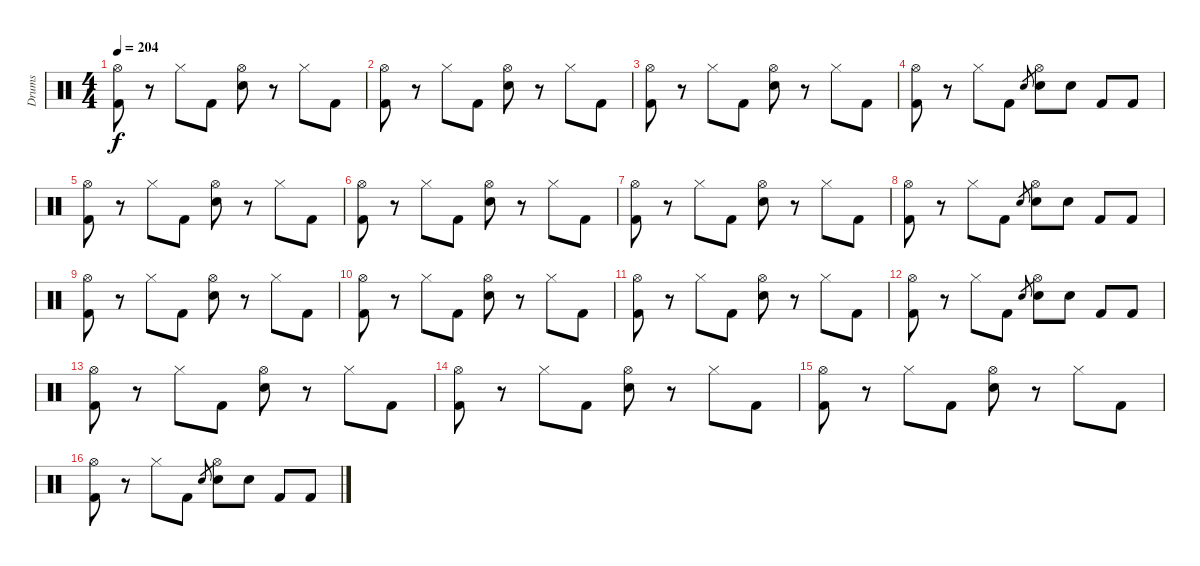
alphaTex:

\track ("Drums" "Drums") {instrument percussion}
\staff {score}
\articulation defaults
\ts (4 4)
\section ("" "")
\tempo 204
\clef neutral
\ks c
("Hi-Hat (open)" "Kick (hit) 2").8{dy f} r.8 "Hi-Hat (closed)".8 "Kick (hit) 2".8 ("Hi-Hat (open)" "Electric Snare (hit)").8 r.8 "Hi-Hat (closed)".8 "Kick (hit) 2".8 |
("Hi-Hat (open)" "Kick (hit) 2").8 r.8 "Hi-Hat (closed)".8 "Kick (hit) 2".8 ("Hi-Hat (open)" "Electric Snare (hit)").8 r.8 "Hi-Hat (closed)".8 "Kick (hit) 2".8 |
("Hi-Hat (open)" "Kick (hit) 2").8 r.8 "Hi-Hat (closed)".8 "Kick (hit) 2".8 ("Hi-Hat (open)" "Electric Snare (hit)").8 r.8 "Hi-Hat (closed)".8 "Kick (hit) 2".8 |
("Hi-Hat (open)" "Kick (hit) 2").8 r.8 "Hi-Hat (closed)".8 "Kick (hit) 2".8 "Electric Snare (hit)".8{gr} ("Hi-Hat (open)" "Electric Snare (hit)").8 "Electric Snare (hit)".8 "Kick (hit) 2".8 "Kick (hit) 2".8 |
("Hi-Hat (open)" "Kick (hit) 2").8 r.8 "Hi-Hat (closed)".8 "Kick (hit) 2".8 ("Hi-Hat (open)" "Electric Snare (hit)").8 r.8 "Hi-Hat (closed)".8 "Kick (hit) 2".8 |
("Hi-Hat (open)" "Kick (hit) 2").8 r.8 "Hi-Hat (closed)".8 "Kick (hit) 2".8 ("Hi-Hat (open)" "Electric Snare (hit)").8 r.8 "Hi-Hat (closed)".8 "Kick (hit) 2".8 |
("Hi-Hat (open)" "Kick (hit) 2").8 r.8 "Hi-Hat (closed)".8 "Kick (hit) 2".8 ("Hi-Hat (open)" "Electric Snare (hit)").8 r.8 "Hi-Hat (closed)".8 "Kick (hit) 2".8 |
("Hi-Hat (open)" "Kick (hit) 2").8 r.8 "Hi-Hat (closed)".8 "Kick (hit) 2".8 "Electric Snare (hit)".8{gr} ("Hi-Hat (open)" "Electric Snare (hit)").8 "Electric Snare (hit)".8 "Kick (hit) 2".8 "Kick (hit) 2".8 |
\section ("" "")
("Hi-Hat (open)" "Kick (hit) 2").8 r.8 "Hi-Hat (closed)".8 "Kick (hit) 2".8 ("Hi-Hat (open)" "Electric Snare (hit)").8 r.8 "Hi-Hat (closed)".8 "Kick (hit) 2".8 |
("Hi-Hat (open)" "Kick (hit) 2").8 r.8 "Hi-Hat (closed)".8 "Kick (hit) 2".8 ("Hi-Hat (open)" "Electric Snare (hit)").8 r.8 "Hi-Hat (closed)".8 "Kick (hit) 2".8 |
("Hi-Hat (open)" "Kick (hit) 2").8 r.8 "Hi-Hat (closed)".8 "Kick (hit) 2".8 ("Hi-Hat (open)" "Electric Snare (hit)").8 r.8 "Hi-Hat (closed)".8 "Kick (hit) 2".8 |
("Hi-Hat (open)" "Kick (hit) 2").8 r.8 "Hi-Hat (closed)".8 "Kick (hit) 2".8 "Electric Snare (hit)".8{gr} ("Hi-Hat (open)" "Electric Snare (hit)").8 "Electric Snare (hit)".8 "Kick (hit) 2".8 "Kick (hit) 2".8 |
("Hi-Hat (open)" "Kick (hit) 2").8 r.8 "Hi-Hat (closed)".8 "Kick (hit) 2".8 ("Hi-Hat (open)" "Electric Snare (hit)").8 r.8 "Hi-Hat (closed)".8 "Kick (hit) 2".8 |
("Hi-Hat (open)" "Kick (hit) 2").8 r.8 "Hi-Hat (closed)".8 "Kick (hit) 2".8 ("Hi-Hat (open)" "Electric Snare (hit)").8 r.8 "Hi-Hat (closed)".8 "Kick (hit) 2".8 |
("Hi-Hat (open)" "Kick (hit) 2").8 r.8 "Hi-Hat (closed)".8 "Kick (hit) 2".8 ("Hi-Hat (open)" "Electric Snare (hit)").8 r.8 "Hi-Hat (closed)".8 "Kick (hit) 2".8 |
("Hi-Hat (open)" "Kick (hit) 2").8 r.8 "Hi-Hat (closed)".8 "Kick (hit) 2".8 "Electric Snare (hit)".8{gr} ("Hi-Hat (open)" "Electric Snare (hit)").8 "Electric Snare (hit)".8 "Kick (hit) 2".8 "Kick (hit) 2".8
